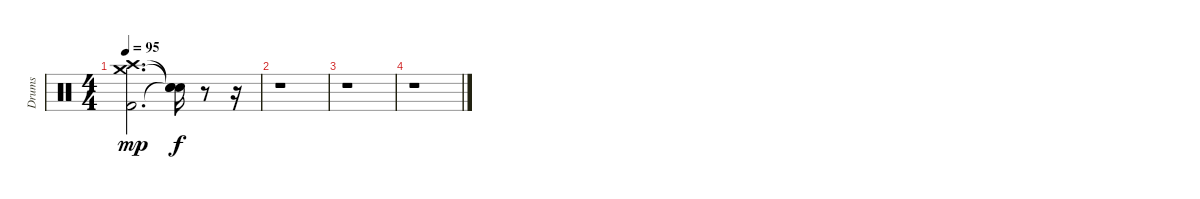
\track ("Drums" "Drums") {instrument percussion}
\staff {score}
\articulation defaults
\ts (4 4)
\tempo 95
\clef neutral
\ks c
("Kick (hit) 2" "Crash high (hit)" "Crash medium (hit)").2{d dy mp} ("Snare (hit)"{t} "Snare (hit)"{t} "Snare (hit)"{t}).16{dy f} r.8 r.16 |
r.1 |
r.1 |
r.1
